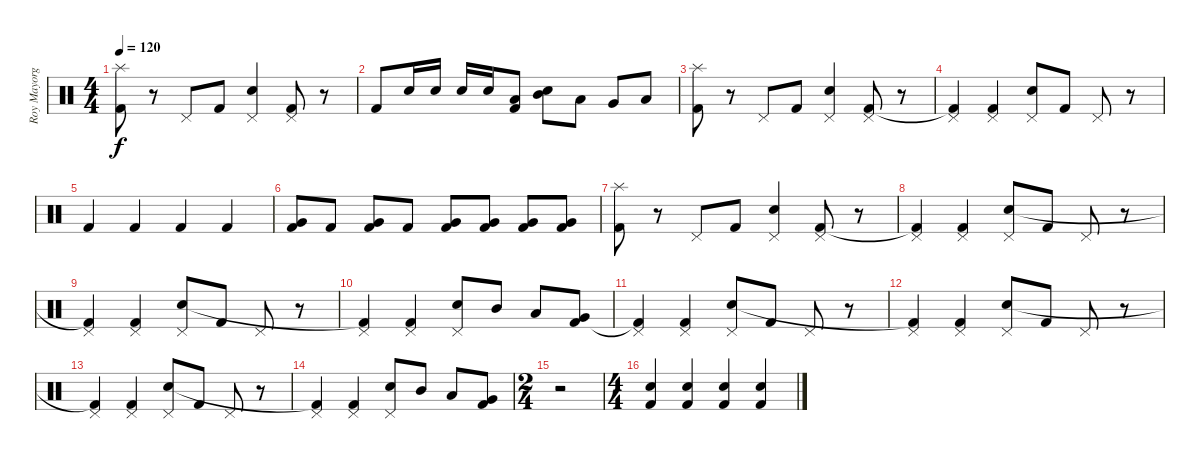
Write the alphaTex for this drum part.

\track ("Roy Mayorga" "Roy Mayorg") {instrument percussion}
\staff {score}
\articulation defaults
\ts (4 4)
\tempo 120
\clef neutral
\ks c
("Splash (hit)" "Kick (hit) 2").8{dy f} r.8 "Pedal Hi-Hat (hit)".8 "Kick (hit) 2".8 ("Pedal Hi-Hat (hit)" "Electric Snare (hit)").4 ("Pedal Hi-Hat (hit)" "Kick (hit) 2").8 r.8 |
"Kick (hit) 2".8 "Electric Snare (hit)".16 "Electric Snare (hit)".16 "Electric Snare (hit)".16 "Electric Snare (hit)".16 ("Low Tom (hit)" "Kick (hit) 2").8 ("Mid Tom (hit)" "Electric Snare (hit)").8 "Low Tom (hit)".8 "Very Low Tom (hit)".8 "Low Floor Tom (hit)".8 |
("Splash (hit)" "Kick (hit) 2").8 r.8 "Pedal Hi-Hat (hit)".8 "Kick (hit) 2".8 ("Pedal Hi-Hat (hit)" "Electric Snare (hit)").4 ("Pedal Hi-Hat (hit)" "Kick (hit) 2").8 r.8 |
("Pedal Hi-Hat (hit)" "Kick (hit) 2"{t}).4 ("Pedal Hi-Hat (hit)" "Kick (hit) 2").4 ("Pedal Hi-Hat (hit)" "Electric Snare (hit)").8 "Kick (hit) 2".8 "Pedal Hi-Hat (hit)".8 r.8 |
"Kick (hit) 2".4 "Kick (hit) 2".4 "Kick (hit) 2".4 "Kick (hit) 2".4 |
("Very Low Tom (hit)" "Kick (hit) 2").8 "Kick (hit) 2".8 ("Very Low Tom (hit)" "Kick (hit) 2").8 "Kick (hit) 2".8 ("Very Low Tom (hit)" "Kick (hit) 2").8 ("Very Low Tom (hit)" "Kick (hit) 2").8 ("Very Low Tom (hit)" "Kick (hit) 2").8 ("Very Low Tom (hit)" "Kick (hit) 2").8 |
("Splash (hit)" "Kick (hit) 2").8 r.8 "Pedal Hi-Hat (hit)".8 "Kick (hit) 2".8 ("Pedal Hi-Hat (hit)" "Electric Snare (hit)").4 ("Pedal Hi-Hat (hit)" "Kick (hit) 2").8 r.8 |
("Pedal Hi-Hat (hit)" "Kick (hit) 2"{t}).4 ("Pedal Hi-Hat (hit)" "Kick (hit) 2").4 ("Pedal Hi-Hat (hit)" "Electric Snare (hit)").8 "Kick (hit) 2".8 "Pedal Hi-Hat (hit)".8 r.8 |
("Pedal Hi-Hat (hit)" "Kick (hit) 2"{t}).4 ("Pedal Hi-Hat (hit)" "Kick (hit) 2").4 ("Pedal Hi-Hat (hit)" "Electric Snare (hit)").8 "Kick (hit) 2".8 "Pedal Hi-Hat (hit)".8 r.8 |
("Pedal Hi-Hat (hit)" "Kick (hit) 2"{t}).4 ("Pedal Hi-Hat (hit)" "Kick (hit) 2").4 ("Pedal Hi-Hat (hit)" "Electric Snare (hit)").8 "Mid Tom (hit)".8 "Low Tom (hit)".8 ("Very Low Tom (hit)" "Kick (hit) 2").8 |
("Pedal Hi-Hat (hit)" "Kick (hit) 2"{t}).4 ("Pedal Hi-Hat (hit)" "Kick (hit) 2").4 ("Pedal Hi-Hat (hit)" "Electric Snare (hit)").8 "Kick (hit) 2".8 "Pedal Hi-Hat (hit)".8 r.8 |
("Pedal Hi-Hat (hit)" "Kick (hit) 2"{t}).4 ("Pedal Hi-Hat (hit)" "Kick (hit) 2").4 ("Pedal Hi-Hat (hit)" "Electric Snare (hit)").8 "Kick (hit) 2".8 "Pedal Hi-Hat (hit)".8 r.8 |
("Pedal Hi-Hat (hit)" "Kick (hit) 2"{t}).4 ("Pedal Hi-Hat (hit)" "Kick (hit) 2").4 ("Pedal Hi-Hat (hit)" "Electric Snare (hit)").8 "Kick (hit) 2".8 "Pedal Hi-Hat (hit)".8 r.8 |
("Pedal Hi-Hat (hit)" "Kick (hit) 2"{t}).4 ("Pedal Hi-Hat (hit)" "Kick (hit) 2").4 ("Pedal Hi-Hat (hit)" "Electric Snare (hit)").8 "Mid Tom (hit)".8 "Low Tom (hit)".8 ("Very Low Tom (hit)" "Kick (hit) 2").8 |
\ts (2 4)
r.2 |
\ts (4 4)
("Electric Snare (hit)" "Kick (hit) 2").4 ("Electric Snare (hit)" "Kick (hit) 2").4 ("Electric Snare (hit)" "Kick (hit) 2").4 ("Electric Snare (hit)" "Kick (hit) 2").4
